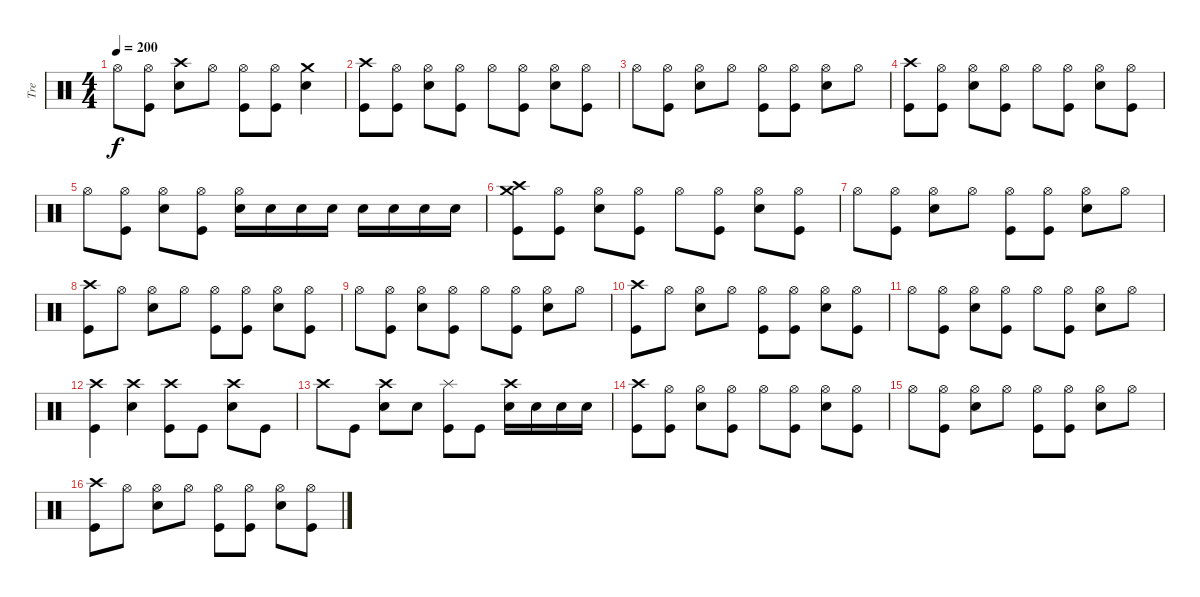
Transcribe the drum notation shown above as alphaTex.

\track ("Tre" "Tre") {instrument percussion}
\staff {score}
\articulation defaults
\ts (4 4)
\tempo 200
\clef neutral
\ks c "Hi-Hat (open)".8{dy f}
("Hi-Hat (open)" "Kick (hit)").8 ("Crash high (hit)" "Snare (hit) 2").8 "Hi-Hat (open)".8 ("Hi-Hat (open)" "Kick (hit)").8 ("Hi-Hat (open)" "Kick (hit)").8 ("Crash medium (hit)" "Snare (hit) 2").4 |
("Crash high (hit)" "Kick (hit)").8 ("Hi-Hat (open)" "Kick (hit)").8 ("Hi-Hat (open)" "Snare (hit) 2").8 ("Hi-Hat (open)" "Kick (hit)").8 "Hi-Hat (open)".8 ("Hi-Hat (open)" "Kick (hit)").8 ("Hi-Hat (open)" "Snare (hit) 2").8 ("Hi-Hat (open)" "Kick (hit)").8 |
"Hi-Hat (open)".8 ("Hi-Hat (open)" "Kick (hit)").8 ("Hi-Hat (open)" "Snare (hit) 2").8 "Hi-Hat (open)".8 ("Hi-Hat (open)" "Kick (hit)").8 ("Hi-Hat (open)" "Kick (hit)").8 ("Hi-Hat (open)" "Snare (hit) 2").8 "Hi-Hat (open)".8 |
("Crash high (hit)" "Kick (hit)").8 ("Hi-Hat (open)" "Kick (hit)").8 ("Hi-Hat (open)" "Snare (hit) 2").8 ("Hi-Hat (open)" "Kick (hit)").8 "Hi-Hat (open)".8 ("Hi-Hat (open)" "Kick (hit)").8 ("Hi-Hat (open)" "Snare (hit) 2").8 ("Hi-Hat (open)" "Kick (hit)").8 |
"Hi-Hat (open)".8 ("Hi-Hat (open)" "Kick (hit)").8 ("Hi-Hat (open)" "Snare (hit) 2").8 ("Hi-Hat (open)" "Kick (hit)").8 ("Hi-Hat (open)" "Snare (hit) 2").16 "Snare (hit) 2".16 "Snare (hit) 2".16 "Snare (hit) 2".16 "Snare (hit) 2".16 "Snare (hit) 2".16 "Snare (hit) 2".16 "Snare (hit) 2".16 |
("Crash high (hit)" "Crash medium (hit)" "Kick (hit)").8 ("Hi-Hat (open)" "Kick (hit)").8 ("Hi-Hat (open)" "Snare (hit) 2").8 ("Hi-Hat (open)" "Kick (hit)").8 "Hi-Hat (open)".8 ("Hi-Hat (open)" "Kick (hit)").8 ("Hi-Hat (open)" "Snare (hit) 2").8 ("Hi-Hat (open)" "Kick (hit)").8 |
"Hi-Hat (open)".8 ("Hi-Hat (open)" "Kick (hit)").8 ("Hi-Hat (open)" "Snare (hit) 2").8 "Hi-Hat (open)".8 ("Hi-Hat (open)" "Kick (hit)").8 ("Hi-Hat (open)" "Kick (hit)").8 ("Hi-Hat (open)" "Snare (hit) 2").8 "Hi-Hat (open)".8 |
("Crash high (hit)" "Kick (hit)").8 "Hi-Hat (open)".8 ("Hi-Hat (open)" "Snare (hit) 2").8 "Hi-Hat (open)".8 ("Hi-Hat (open)" "Kick (hit)").8 ("Hi-Hat (open)" "Kick (hit)").8 ("Hi-Hat (open)" "Snare (hit) 2").8 ("Hi-Hat (open)" "Kick (hit)").8 |
"Hi-Hat (open)".8 ("Hi-Hat (open)" "Kick (hit)").8 ("Hi-Hat (open)" "Snare (hit) 2").8 ("Hi-Hat (open)" "Kick (hit)").8 "Hi-Hat (open)".8 ("Hi-Hat (open)" "Kick (hit)").8 ("Hi-Hat (open)" "Snare (hit) 2").8 "Hi-Hat (open)".8 |
("Crash high (hit)" "Kick (hit)").8 "Hi-Hat (open)".8 ("Hi-Hat (open)" "Snare (hit) 2").8 "Hi-Hat (open)".8 ("Hi-Hat (open)" "Kick (hit)").8 ("Hi-Hat (open)" "Kick (hit)").8 ("Hi-Hat (open)" "Snare (hit) 2").8 ("Hi-Hat (open)" "Kick (hit)").8 |
"Hi-Hat (open)".8 ("Hi-Hat (open)" "Kick (hit)").8 ("Hi-Hat (open)" "Snare (hit) 2").8 ("Hi-Hat (open)" "Kick (hit)").8 "Hi-Hat (open)".8 ("Hi-Hat (open)" "Kick (hit)").8 ("Hi-Hat (open)" "Snare (hit) 2").8 "Hi-Hat (open)".8 |
("Kick (hit)" "Crash high (hit)").4 ("Snare (hit) 2" "Crash high (hit)").4 ("Kick (hit)" "Crash high (hit)").8 "Kick (hit)".8 ("Snare (hit) 2" "Crash high (hit)").8 "Kick (hit)".8 |
"Crash high (hit)".8 "Kick (hit)".8 ("Snare (hit) 2" "Crash high (hit)").8 "Snare (hit) 2".8 ("Kick (hit)" "Splash (hit)").8 "Kick (hit)".8 ("Snare (hit) 2" "Crash high (hit)").16 "Snare (hit) 2".16 "Snare (hit) 2".16 "Snare (hit) 2".16 |
("Crash high (hit)" "Kick (hit)").8 ("Hi-Hat (open)" "Kick (hit)").8 ("Hi-Hat (open)" "Snare (hit) 2").8 ("Hi-Hat (open)" "Kick (hit)").8 "Hi-Hat (open)".8 ("Hi-Hat (open)" "Kick (hit)").8 ("Hi-Hat (open)" "Snare (hit) 2").8 ("Hi-Hat (open)" "Kick (hit)").8 |
"Hi-Hat (open)".8 ("Hi-Hat (open)" "Kick (hit)").8 ("Hi-Hat (open)" "Snare (hit) 2").8 "Hi-Hat (open)".8 ("Hi-Hat (open)" "Kick (hit)").8 ("Hi-Hat (open)" "Kick (hit)").8 ("Hi-Hat (open)" "Snare (hit) 2").8 "Hi-Hat (open)".8 |
("Crash high (hit)" "Kick (hit)").8 "Hi-Hat (open)".8 ("Hi-Hat (open)" "Snare (hit) 2").8 "Hi-Hat (open)".8 ("Hi-Hat (open)" "Kick (hit)").8 ("Hi-Hat (open)" "Kick (hit)").8 ("Hi-Hat (open)" "Snare (hit) 2").8 ("Hi-Hat (open)" "Kick (hit)").8
